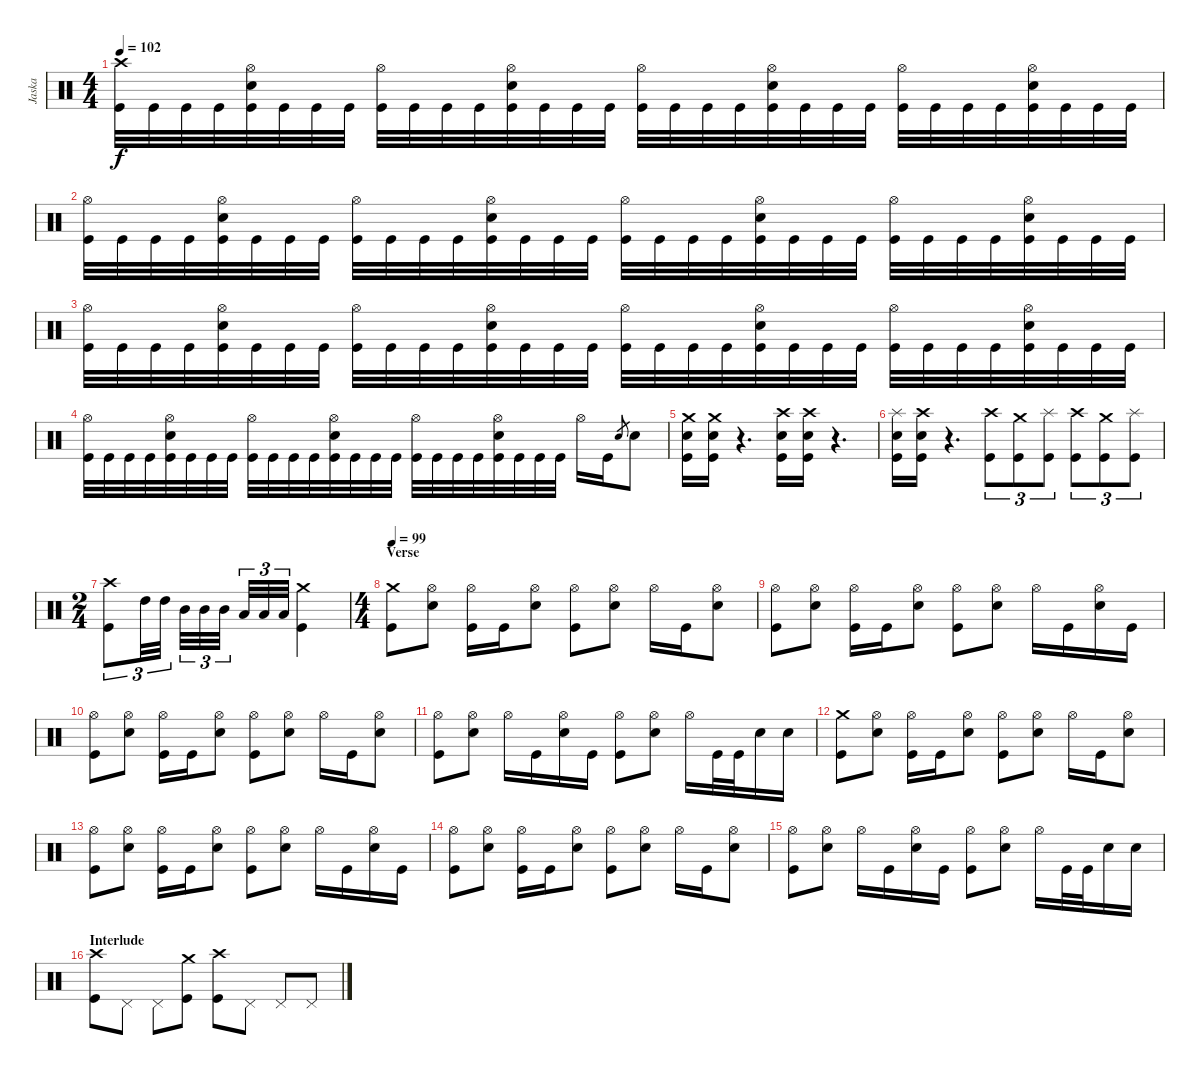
\track ("Jaska" "Jaska") {instrument percussion}
\staff {score}
\articulation defaults
\ts (4 4)
\tempo 102
\clef neutral
\ks c
("Crash high (hit)" "Kick (hit)").32{dy f} "Kick (hit)".32 "Kick (hit)".32 "Kick (hit)".32 ("Hi-Hat (open)" "Electric Snare (hit)" "Kick (hit)").32 "Kick (hit)".32 "Kick (hit)".32 "Kick (hit)".32 ("Hi-Hat (open)" "Kick (hit)").32 "Kick (hit)".32 "Kick (hit)".32 "Kick (hit)".32 ("Hi-Hat (open)" "Electric Snare (hit)" "Kick (hit)").32 "Kick (hit)".32 "Kick (hit)".32 "Kick (hit)".32 ("Hi-Hat (open)" "Kick (hit)").32 "Kick (hit)".32 "Kick (hit)".32 "Kick (hit)".32 ("Hi-Hat (open)" "Electric Snare (hit)" "Kick (hit)").32 "Kick (hit)".32 "Kick (hit)".32 "Kick (hit)".32 ("Hi-Hat (open)" "Kick (hit)").32 "Kick (hit)".32 "Kick (hit)".32 "Kick (hit)".32 ("Hi-Hat (open)" "Electric Snare (hit)" "Kick (hit)").32 "Kick (hit)".32 "Kick (hit)".32 "Kick (hit)".32 |
("Hi-Hat (open)" "Kick (hit)").32 "Kick (hit)".32 "Kick (hit)".32 "Kick (hit)".32 ("Hi-Hat (open)" "Electric Snare (hit)" "Kick (hit)").32 "Kick (hit)".32 "Kick (hit)".32 "Kick (hit)".32 ("Hi-Hat (open)" "Kick (hit)").32 "Kick (hit)".32 "Kick (hit)".32 "Kick (hit)".32 ("Hi-Hat (open)" "Electric Snare (hit)" "Kick (hit)").32 "Kick (hit)".32 "Kick (hit)".32 "Kick (hit)".32 ("Hi-Hat (open)" "Kick (hit)").32 "Kick (hit)".32 "Kick (hit)".32 "Kick (hit)".32 ("Hi-Hat (open)" "Electric Snare (hit)" "Kick (hit)").32 "Kick (hit)".32 "Kick (hit)".32 "Kick (hit)".32 ("Hi-Hat (open)" "Kick (hit)").32 "Kick (hit)".32 "Kick (hit)".32 "Kick (hit)".32 ("Hi-Hat (open)" "Electric Snare (hit)" "Kick (hit)").32 "Kick (hit)".32 "Kick (hit)".32 "Kick (hit)".32 |
("Hi-Hat (open)" "Kick (hit)").32 "Kick (hit)".32 "Kick (hit)".32 "Kick (hit)".32 ("Hi-Hat (open)" "Electric Snare (hit)" "Kick (hit)").32 "Kick (hit)".32 "Kick (hit)".32 "Kick (hit)".32 ("Hi-Hat (open)" "Kick (hit)").32 "Kick (hit)".32 "Kick (hit)".32 "Kick (hit)".32 ("Hi-Hat (open)" "Electric Snare (hit)" "Kick (hit)").32 "Kick (hit)".32 "Kick (hit)".32 "Kick (hit)".32 ("Hi-Hat (open)" "Kick (hit)").32 "Kick (hit)".32 "Kick (hit)".32 "Kick (hit)".32 ("Hi-Hat (open)" "Electric Snare (hit)" "Kick (hit)").32 "Kick (hit)".32 "Kick (hit)".32 "Kick (hit)".32 ("Hi-Hat (open)" "Kick (hit)").32 "Kick (hit)".32 "Kick (hit)".32 "Kick (hit)".32 ("Hi-Hat (open)" "Electric Snare (hit)" "Kick (hit)").32 "Kick (hit)".32 "Kick (hit)".32 "Kick (hit)".32 |
("Hi-Hat (open)" "Kick (hit)").32 "Kick (hit)".32 "Kick (hit)".32 "Kick (hit)".32 ("Hi-Hat (open)" "Electric Snare (hit)" "Kick (hit)").32 "Kick (hit)".32 "Kick (hit)".32 "Kick (hit)".32 ("Hi-Hat (open)" "Kick (hit)").32 "Kick (hit)".32 "Kick (hit)".32 "Kick (hit)".32 ("Hi-Hat (open)" "Electric Snare (hit)" "Kick (hit)").32 "Kick (hit)".32 "Kick (hit)".32 "Kick (hit)".32 ("Hi-Hat (open)" "Kick (hit)").32 "Kick (hit)".32 "Kick (hit)".32 "Kick (hit)".32 ("Hi-Hat (open)" "Electric Snare (hit)" "Kick (hit)").32 "Kick (hit)".32 "Kick (hit)".32 "Kick (hit)".32 "Hi-Hat (open)".16 "Kick (hit)".16 "Electric Snare (hit)".8{gr} "Electric Snare (hit)".8 |
("Crash medium (hit)" "Electric Snare (hit)" "Kick (hit)").16 ("Crash medium (hit)" "Electric Snare (hit)" "Kick (hit)").16 r.4{d} ("Crash high (hit)" "Electric Snare (hit)" "Kick (hit)").16 ("Crash high (hit)" "Electric Snare (hit)" "Kick (hit)").16 r.4{d} |
("Splash (hit)" "Electric Snare (hit)" "Kick (hit)").16 ("Crash high (hit)" "Electric Snare (hit)" "Kick (hit)").16 r.4{d} ("Crash high (hit)" "Kick (hit)").8{tu (3 2)} ("Crash medium (hit)" "Kick (hit)").8{tu (3 2)} ("Splash (hit)" "Kick (hit)").8{tu (3 2)} ("Crash high (hit)" "Kick (hit)").8{tu (3 2)} ("Crash medium (hit)" "Kick (hit)").8{tu (3 2)} ("Splash (hit)" "Kick (hit)").8{tu (3 2)} |
\ts (2 4)
("Crash high (hit)" "Kick (hit)").8{tu (3 2)} "High Tom (hit)".32{tu (3 2)} "High Tom (hit)".32{tu (3 2)} "Mid Tom (hit)".32{tu (3 2)} "Mid Tom (hit)".32{tu (3 2)} "Mid Tom (hit)".32{tu (3 2)} "Low Tom (hit)".32{tu (3 2)} "Low Tom (hit)".32{tu (3 2)} "Low Tom (hit)".32{tu (3 2)} ("Crash medium (hit)" "Kick (hit)").4 |
\ts (4 4)
\section ("" "Verse")
\tempo 99
("Crash medium (hit)" "Kick (hit)").8 ("Hi-Hat (open)" "Electric Snare (hit)").8 ("Hi-Hat (open)" "Kick (hit)").16 "Kick (hit)".16 ("Hi-Hat (open)" "Electric Snare (hit)").8 ("Hi-Hat (open)" "Kick (hit)").8 ("Hi-Hat (open)" "Electric Snare (hit)").8 "Hi-Hat (open)".16 "Kick (hit)".16 ("Hi-Hat (open)" "Electric Snare (hit)").8 |
("Hi-Hat (open)" "Kick (hit)").8 ("Hi-Hat (open)" "Electric Snare (hit)").8 ("Hi-Hat (open)" "Kick (hit)").16 "Kick (hit)".16 ("Hi-Hat (open)" "Electric Snare (hit)").8 ("Hi-Hat (open)" "Kick (hit)").8 ("Hi-Hat (open)" "Electric Snare (hit)").8 "Hi-Hat (open)".16 "Kick (hit)".16 ("Hi-Hat (open)" "Electric Snare (hit)").16 "Kick (hit)".16 |
("Hi-Hat (open)" "Kick (hit)").8 ("Hi-Hat (open)" "Electric Snare (hit)").8 ("Hi-Hat (open)" "Kick (hit)").16 "Kick (hit)".16 ("Hi-Hat (open)" "Electric Snare (hit)").8 ("Hi-Hat (open)" "Kick (hit)").8 ("Hi-Hat (open)" "Electric Snare (hit)").8 "Hi-Hat (open)".16 "Kick (hit)".16 ("Hi-Hat (open)" "Electric Snare (hit)").8 |
("Hi-Hat (open)" "Kick (hit)").8 ("Hi-Hat (open)" "Electric Snare (hit)").8 "Hi-Hat (open)".16 "Kick (hit)".16 ("Hi-Hat (open)" "Electric Snare (hit)").16 "Kick (hit)".16 ("Hi-Hat (open)" "Kick (hit)").8 ("Hi-Hat (open)" "Electric Snare (hit)").8 "Hi-Hat (open)".16 "Kick (hit)".32 "Kick (hit)".32 "Electric Snare (hit)".16 "Electric Snare (hit)".16 |
("Crash medium (hit)" "Kick (hit)").8 ("Hi-Hat (open)" "Electric Snare (hit)").8 ("Hi-Hat (open)" "Kick (hit)").16 "Kick (hit)".16 ("Hi-Hat (open)" "Electric Snare (hit)").8 ("Hi-Hat (open)" "Kick (hit)").8 ("Hi-Hat (open)" "Electric Snare (hit)").8 "Hi-Hat (open)".16 "Kick (hit)".16 ("Hi-Hat (open)" "Electric Snare (hit)").8 |
("Hi-Hat (open)" "Kick (hit)").8 ("Hi-Hat (open)" "Electric Snare (hit)").8 ("Hi-Hat (open)" "Kick (hit)").16 "Kick (hit)".16 ("Hi-Hat (open)" "Electric Snare (hit)").8 ("Hi-Hat (open)" "Kick (hit)").8 ("Hi-Hat (open)" "Electric Snare (hit)").8 "Hi-Hat (open)".16 "Kick (hit)".16 ("Hi-Hat (open)" "Electric Snare (hit)").16 "Kick (hit)".16 |
("Hi-Hat (open)" "Kick (hit)").8 ("Hi-Hat (open)" "Electric Snare (hit)").8 ("Hi-Hat (open)" "Kick (hit)").16 "Kick (hit)".16 ("Hi-Hat (open)" "Electric Snare (hit)").8 ("Hi-Hat (open)" "Kick (hit)").8 ("Hi-Hat (open)" "Electric Snare (hit)").8 "Hi-Hat (open)".16 "Kick (hit)".16 ("Hi-Hat (open)" "Electric Snare (hit)").8 |
("Hi-Hat (open)" "Kick (hit)").8 ("Hi-Hat (open)" "Electric Snare (hit)").8 "Hi-Hat (open)".16 "Kick (hit)".16 ("Hi-Hat (open)" "Electric Snare (hit)").16 "Kick (hit)".16 ("Hi-Hat (open)" "Kick (hit)").8 ("Hi-Hat (open)" "Electric Snare (hit)").8 "Hi-Hat (open)".16 "Kick (hit)".32 "Kick (hit)".32 "Electric Snare (hit)".16 "Electric Snare (hit)".16 |
\section ("" "Interlude")
("Crash high (hit)" "Kick (hit)").8 "Pedal Hi-Hat (hit)".8 "Pedal Hi-Hat (hit)".8 ("Crash medium (hit)" "Kick (hit)").8 ("Crash high (hit)" "Kick (hit)").8 "Pedal Hi-Hat (hit)".8 "Pedal Hi-Hat (hit)".8 "Pedal Hi-Hat (hit)".8
